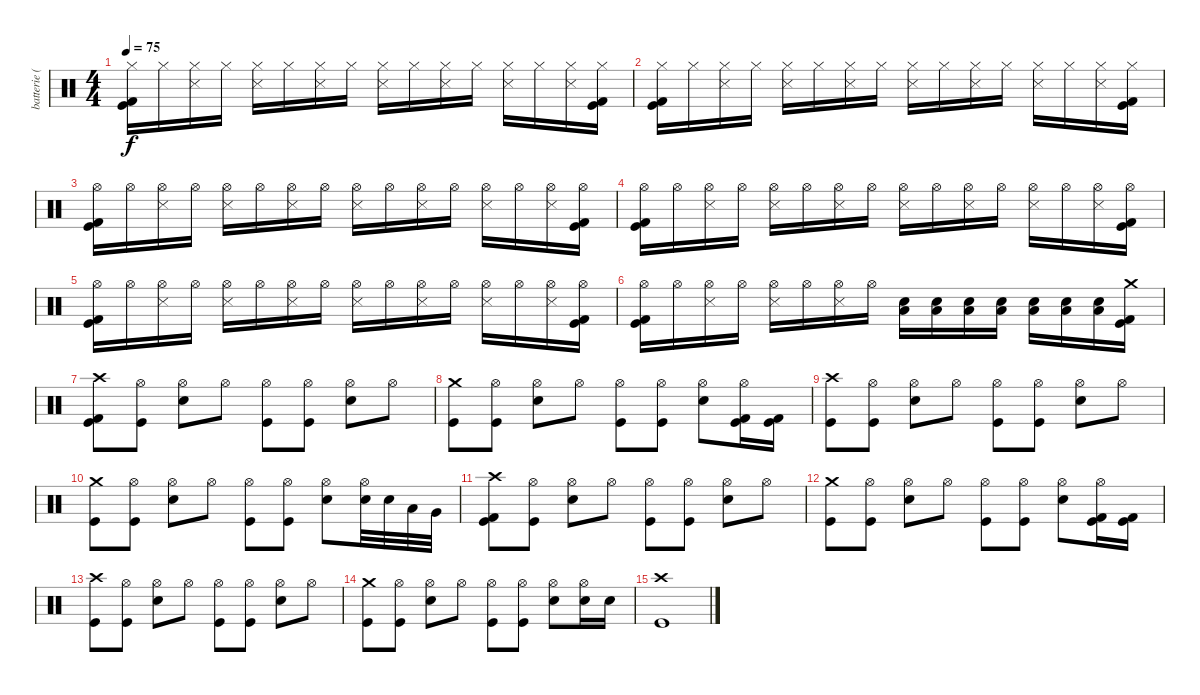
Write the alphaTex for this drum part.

\track ("batterie ( fabien )" "batterie (") {instrument percussion}
\staff {score}
\articulation defaults
\ts (4 4)
\tempo 75
\clef neutral
\ks c
("Hi-Hat (closed)" "Kick (hit) 2" "Kick (hit)").16{dy f} "Hi-Hat (closed)".16 ("Hi-Hat (closed)" "Snare (side stick) 3").16 "Hi-Hat (closed)".16 ("Hi-Hat (closed)" "Snare (side stick) 3").16 "Hi-Hat (closed)".16 ("Hi-Hat (closed)" "Snare (side stick) 3").16 "Hi-Hat (closed)".16 ("Hi-Hat (closed)" "Snare (side stick) 3").16 "Hi-Hat (closed)".16 ("Hi-Hat (closed)" "Snare (side stick) 3").16 "Hi-Hat (closed)".16 ("Hi-Hat (closed)" "Snare (side stick) 3").16 "Hi-Hat (closed)".16 ("Hi-Hat (closed)" "Snare (side stick) 3").16 ("Hi-Hat (closed)" "Kick (hit) 2" "Kick (hit)").16 |
("Hi-Hat (closed)" "Kick (hit) 2" "Kick (hit)").16 "Hi-Hat (closed)".16 ("Hi-Hat (closed)" "Snare (side stick) 3").16 "Hi-Hat (closed)".16 ("Hi-Hat (closed)" "Snare (side stick) 3").16 "Hi-Hat (closed)".16 ("Hi-Hat (closed)" "Snare (side stick) 3").16 "Hi-Hat (closed)".16 ("Hi-Hat (closed)" "Snare (side stick) 3").16 "Hi-Hat (closed)".16 ("Hi-Hat (closed)" "Snare (side stick) 3").16 "Hi-Hat (closed)".16 ("Hi-Hat (closed)" "Snare (side stick) 3").16 "Hi-Hat (closed)".16 ("Hi-Hat (closed)" "Snare (side stick) 3").16 ("Hi-Hat (closed)" "Kick (hit) 2" "Kick (hit)").16 |
("Hi-Hat (open)" "Kick (hit) 2" "Kick (hit)").16 "Hi-Hat (open)".16 ("Hi-Hat (open)" "Snare (side stick) 3").16 "Hi-Hat (open)".16 ("Hi-Hat (open)" "Snare (side stick) 3").16 "Hi-Hat (open)".16 ("Hi-Hat (open)" "Snare (side stick) 3").16 "Hi-Hat (open)".16 ("Hi-Hat (open)" "Snare (side stick) 3").16 "Hi-Hat (open)".16 ("Hi-Hat (open)" "Snare (side stick) 3").16 "Hi-Hat (open)".16 ("Hi-Hat (open)" "Snare (side stick) 3").16 "Hi-Hat (open)".16 ("Hi-Hat (open)" "Snare (side stick) 3").16 ("Hi-Hat (open)" "Kick (hit) 2" "Kick (hit)").16 |
("Hi-Hat (open)" "Kick (hit) 2" "Kick (hit)").16 "Hi-Hat (open)".16 ("Hi-Hat (open)" "Snare (side stick) 3").16 "Hi-Hat (open)".16 ("Hi-Hat (open)" "Snare (side stick) 3").16 "Hi-Hat (open)".16 ("Hi-Hat (open)" "Snare (side stick) 3").16 "Hi-Hat (open)".16 ("Hi-Hat (open)" "Snare (side stick) 3").16 "Hi-Hat (open)".16 ("Hi-Hat (open)" "Snare (side stick) 3").16 "Hi-Hat (open)".16 ("Hi-Hat (open)" "Snare (side stick) 3").16 "Hi-Hat (open)".16 ("Hi-Hat (open)" "Snare (side stick) 3").16 ("Hi-Hat (open)" "Kick (hit) 2" "Kick (hit)").16 |
("Hi-Hat (open)" "Kick (hit) 2" "Kick (hit)").16 "Hi-Hat (open)".16 ("Hi-Hat (open)" "Snare (side stick) 3").16 "Hi-Hat (open)".16 ("Hi-Hat (open)" "Snare (side stick) 3").16 "Hi-Hat (open)".16 ("Hi-Hat (open)" "Snare (side stick) 3").16 "Hi-Hat (open)".16 ("Hi-Hat (open)" "Snare (side stick) 3").16 "Hi-Hat (open)".16 ("Hi-Hat (open)" "Snare (side stick) 3").16 "Hi-Hat (open)".16 ("Hi-Hat (open)" "Snare (side stick) 3").16 "Hi-Hat (open)".16 ("Hi-Hat (open)" "Snare (side stick) 3").16 ("Hi-Hat (open)" "Kick (hit) 2" "Kick (hit)").16 |
("Hi-Hat (open)" "Kick (hit) 2" "Kick (hit)").16 "Hi-Hat (open)".16 ("Hi-Hat (open)" "Snare (side stick) 3").16 "Hi-Hat (open)".16 ("Hi-Hat (open)" "Snare (side stick) 3").16 "Hi-Hat (open)".16 ("Hi-Hat (open)" "Snare (side stick) 3").16 "Hi-Hat (open)".16 ("Snare (hit) 2" "Low Tom (hit)").16 ("Snare (hit) 2" "Low Tom (hit)").16 ("Snare (hit) 2" "Low Tom (hit)").16 ("Snare (hit) 2" "Low Tom (hit)").16 ("Snare (hit) 2" "Low Tom (hit)").16 ("Snare (hit) 2" "Low Tom (hit)").16 ("Snare (hit) 2" "Low Tom (hit)").16 ("Crash medium (hit)" "Kick (hit) 2" "Kick (hit)").16 |
("Crash high (hit)" "Kick (hit) 2" "Kick (hit)").8 ("Hi-Hat (open)" "Kick (hit)").8 ("Hi-Hat (open)" "Snare (hit) 2").8 "Hi-Hat (open)".8 ("Hi-Hat (open)" "Kick (hit)").8 ("Hi-Hat (open)" "Kick (hit)").8 ("Hi-Hat (open)" "Snare (hit) 2").8 "Hi-Hat (open)".8 |
("Crash medium (hit)" "Kick (hit)").8 ("Hi-Hat (open)" "Kick (hit)").8 ("Hi-Hat (open)" "Snare (hit) 2").8 "Hi-Hat (open)".8 ("Hi-Hat (open)" "Kick (hit)").8 ("Hi-Hat (open)" "Kick (hit)").8 ("Hi-Hat (open)" "Snare (hit) 2").8 ("Hi-Hat (open)" "Kick (hit) 2" "Kick (hit)").16 ("Kick (hit) 2" "Kick (hit)").16 |
("Crash high (hit)" "Kick (hit)").8 ("Hi-Hat (open)" "Kick (hit)").8 ("Hi-Hat (open)" "Snare (hit) 2").8 "Hi-Hat (open)".8 ("Hi-Hat (open)" "Kick (hit)").8 ("Hi-Hat (open)" "Kick (hit)").8 ("Hi-Hat (open)" "Snare (hit) 2").8 "Hi-Hat (open)".8 |
("Crash medium (hit)" "Kick (hit)").8 ("Hi-Hat (open)" "Kick (hit)").8 ("Hi-Hat (open)" "Snare (hit) 2").8 "Hi-Hat (open)".8 ("Hi-Hat (open)" "Kick (hit)").8 ("Hi-Hat (open)" "Kick (hit)").8 ("Hi-Hat (open)" "Snare (hit) 2").8 ("Hi-Hat (open)" "Snare (hit) 2").32 "Snare (hit) 2".32 "Low Tom (hit)".32 "Very Low Tom (hit)".32 |
("Crash high (hit)" "Kick (hit) 2" "Kick (hit)").8 ("Hi-Hat (open)" "Kick (hit)").8 ("Hi-Hat (open)" "Snare (hit) 2").8 "Hi-Hat (open)".8 ("Hi-Hat (open)" "Kick (hit)").8 ("Hi-Hat (open)" "Kick (hit)").8 ("Hi-Hat (open)" "Snare (hit) 2").8 "Hi-Hat (open)".8 |
("Crash medium (hit)" "Kick (hit)").8 ("Hi-Hat (open)" "Kick (hit)").8 ("Hi-Hat (open)" "Snare (hit) 2").8 "Hi-Hat (open)".8 ("Hi-Hat (open)" "Kick (hit)").8 ("Hi-Hat (open)" "Kick (hit)").8 ("Hi-Hat (open)" "Snare (hit) 2").8 ("Hi-Hat (open)" "Kick (hit) 2" "Kick (hit)").16 ("Kick (hit) 2" "Kick (hit)").16 |
("Crash high (hit)" "Kick (hit)").8 ("Hi-Hat (open)" "Kick (hit)").8 ("Hi-Hat (open)" "Snare (hit) 2").8 "Hi-Hat (open)".8 ("Hi-Hat (open)" "Kick (hit)").8 ("Hi-Hat (open)" "Kick (hit)").8 ("Hi-Hat (open)" "Snare (hit) 2").8 "Hi-Hat (open)".8 |
("Crash medium (hit)" "Kick (hit)").8 ("Hi-Hat (open)" "Kick (hit)").8 ("Hi-Hat (open)" "Snare (hit) 2").8 "Hi-Hat (open)".8 ("Hi-Hat (open)" "Kick (hit)").8 ("Hi-Hat (open)" "Kick (hit)").8 ("Hi-Hat (open)" "Snare (hit) 2").8 ("Hi-Hat (open)" "Snare (hit) 2").16 "Snare (hit) 2".16 |
("Crash high (hit)" "Kick (hit)").1
